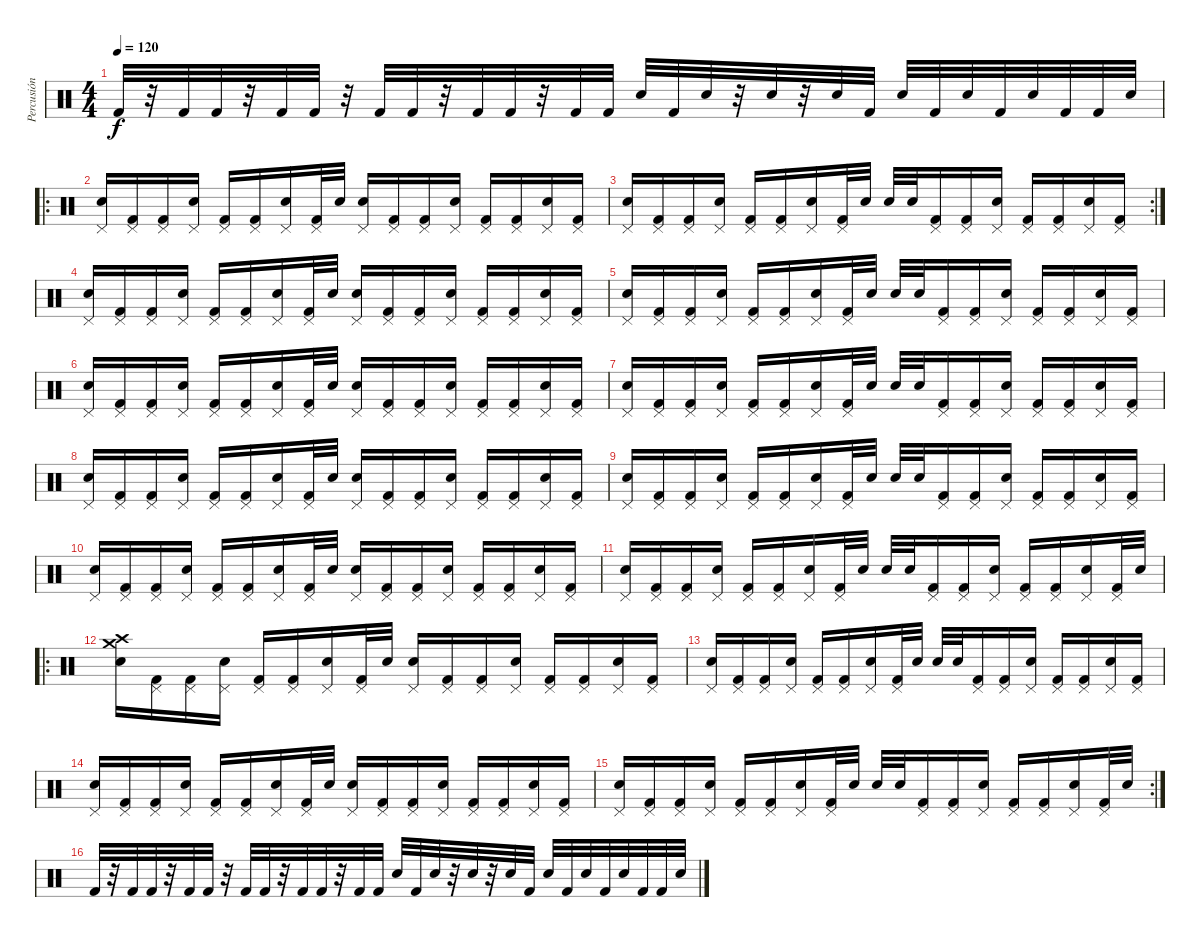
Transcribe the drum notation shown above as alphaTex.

\track ("Percusión" "Percusión") {instrument percussion}
\staff {score}
\articulation defaults
\ts (4 4)
\tempo 120
\clef neutral
\ks c "Kick (hit) 2".32{dy f volume 16}
r.32 "Kick (hit) 2".32{volume 10} "Kick (hit) 2".32 r.32 "Kick (hit) 2".32{volume 7} "Kick (hit) 2".32 r.32 "Kick (hit) 2".32{volume 4} "Kick (hit) 2".32 r.32 "Kick (hit) 2".32 "Kick (hit) 2".32 r.32 "Kick (hit) 2".32{volume 2} "Kick (hit) 2".32 "Electric Snare (hit)".32 "Kick (hit) 2".32 "Electric Snare (hit)".32 r.32 "Electric Snare (hit)".32 r.32 "Electric Snare (hit)".32{volume 4} "Kick (hit) 2".32 "Electric Snare (hit)".32 "Kick (hit) 2".32 "Electric Snare (hit)".32 "Kick (hit) 2".32 "Electric Snare (hit)".32{volume 8} "Kick (hit) 2".32 "Kick (hit) 2".32 "Electric Snare (hit)".32{volume 16} |
\ro
("Pedal Hi-Hat (hit)" "Electric Snare (hit)").16 ("Pedal Hi-Hat (hit)" "Kick (hit) 2").16 ("Pedal Hi-Hat (hit)" "Kick (hit) 2").16 ("Pedal Hi-Hat (hit)" "Electric Snare (hit)").16 ("Pedal Hi-Hat (hit)" "Kick (hit) 2").16 ("Pedal Hi-Hat (hit)" "Kick (hit) 2").16 ("Pedal Hi-Hat (hit)" "Electric Snare (hit)").16 ("Pedal Hi-Hat (hit)" "Kick (hit) 2").32 "Electric Snare (hit)".32 ("Pedal Hi-Hat (hit)" "Electric Snare (hit)").16 ("Pedal Hi-Hat (hit)" "Kick (hit) 2").16 ("Pedal Hi-Hat (hit)" "Kick (hit) 2").16 ("Pedal Hi-Hat (hit)" "Electric Snare (hit)").16 ("Pedal Hi-Hat (hit)" "Kick (hit) 2").16 ("Pedal Hi-Hat (hit)" "Kick (hit) 2").16 ("Pedal Hi-Hat (hit)" "Electric Snare (hit)").16 ("Pedal Hi-Hat (hit)" "Kick (hit) 2").16 |
\rc 2
("Pedal Hi-Hat (hit)" "Electric Snare (hit)").16 ("Pedal Hi-Hat (hit)" "Kick (hit) 2").16 ("Pedal Hi-Hat (hit)" "Kick (hit) 2").16 ("Pedal Hi-Hat (hit)" "Electric Snare (hit)").16 ("Pedal Hi-Hat (hit)" "Kick (hit) 2").16 ("Pedal Hi-Hat (hit)" "Kick (hit) 2").16 ("Pedal Hi-Hat (hit)" "Electric Snare (hit)").16 ("Pedal Hi-Hat (hit)" "Kick (hit) 2").32 "Electric Snare (hit)".32 "Electric Snare (hit)".32 "Electric Snare (hit)".32 ("Pedal Hi-Hat (hit)" "Kick (hit) 2").16 ("Pedal Hi-Hat (hit)" "Kick (hit) 2").16 ("Pedal Hi-Hat (hit)" "Electric Snare (hit)").16 ("Pedal Hi-Hat (hit)" "Kick (hit) 2").16 ("Pedal Hi-Hat (hit)" "Kick (hit) 2").16 ("Pedal Hi-Hat (hit)" "Electric Snare (hit)").16 ("Pedal Hi-Hat (hit)" "Kick (hit) 2").16 |
("Pedal Hi-Hat (hit)" "Electric Snare (hit)").16 ("Pedal Hi-Hat (hit)" "Kick (hit) 2").16 ("Pedal Hi-Hat (hit)" "Kick (hit) 2").16 ("Pedal Hi-Hat (hit)" "Electric Snare (hit)").16 ("Pedal Hi-Hat (hit)" "Kick (hit) 2").16 ("Pedal Hi-Hat (hit)" "Kick (hit) 2").16 ("Pedal Hi-Hat (hit)" "Electric Snare (hit)").16 ("Pedal Hi-Hat (hit)" "Kick (hit) 2").32 "Electric Snare (hit)".32 ("Pedal Hi-Hat (hit)" "Electric Snare (hit)").16 ("Pedal Hi-Hat (hit)" "Kick (hit) 2").16 ("Pedal Hi-Hat (hit)" "Kick (hit) 2").16 ("Pedal Hi-Hat (hit)" "Electric Snare (hit)").16 ("Pedal Hi-Hat (hit)" "Kick (hit) 2").16 ("Pedal Hi-Hat (hit)" "Kick (hit) 2").16 ("Pedal Hi-Hat (hit)" "Electric Snare (hit)").16 ("Pedal Hi-Hat (hit)" "Kick (hit) 2").16 |
("Pedal Hi-Hat (hit)" "Electric Snare (hit)").16 ("Pedal Hi-Hat (hit)" "Kick (hit) 2").16 ("Pedal Hi-Hat (hit)" "Kick (hit) 2").16 ("Pedal Hi-Hat (hit)" "Electric Snare (hit)").16 ("Pedal Hi-Hat (hit)" "Kick (hit) 2").16 ("Pedal Hi-Hat (hit)" "Kick (hit) 2").16 ("Pedal Hi-Hat (hit)" "Electric Snare (hit)").16 ("Pedal Hi-Hat (hit)" "Kick (hit) 2").32 "Electric Snare (hit)".32 "Electric Snare (hit)".32 "Electric Snare (hit)".32 ("Pedal Hi-Hat (hit)" "Kick (hit) 2").16 ("Pedal Hi-Hat (hit)" "Kick (hit) 2").16 ("Pedal Hi-Hat (hit)" "Electric Snare (hit)").16 ("Pedal Hi-Hat (hit)" "Kick (hit) 2").16 ("Pedal Hi-Hat (hit)" "Kick (hit) 2").16 ("Pedal Hi-Hat (hit)" "Electric Snare (hit)").16 ("Pedal Hi-Hat (hit)" "Kick (hit) 2").16 |
("Pedal Hi-Hat (hit)" "Electric Snare (hit)").16 ("Pedal Hi-Hat (hit)" "Kick (hit) 2").16 ("Pedal Hi-Hat (hit)" "Kick (hit) 2").16 ("Pedal Hi-Hat (hit)" "Electric Snare (hit)").16 ("Pedal Hi-Hat (hit)" "Kick (hit) 2").16 ("Pedal Hi-Hat (hit)" "Kick (hit) 2").16 ("Pedal Hi-Hat (hit)" "Electric Snare (hit)").16 ("Pedal Hi-Hat (hit)" "Kick (hit) 2").32 "Electric Snare (hit)".32 ("Pedal Hi-Hat (hit)" "Electric Snare (hit)").16 ("Pedal Hi-Hat (hit)" "Kick (hit) 2").16 ("Pedal Hi-Hat (hit)" "Kick (hit) 2").16 ("Pedal Hi-Hat (hit)" "Electric Snare (hit)").16 ("Pedal Hi-Hat (hit)" "Kick (hit) 2").16 ("Pedal Hi-Hat (hit)" "Kick (hit) 2").16 ("Pedal Hi-Hat (hit)" "Electric Snare (hit)").16 ("Pedal Hi-Hat (hit)" "Kick (hit) 2").16 |
("Pedal Hi-Hat (hit)" "Electric Snare (hit)").16 ("Pedal Hi-Hat (hit)" "Kick (hit) 2").16 ("Pedal Hi-Hat (hit)" "Kick (hit) 2").16 ("Pedal Hi-Hat (hit)" "Electric Snare (hit)").16 ("Pedal Hi-Hat (hit)" "Kick (hit) 2").16 ("Pedal Hi-Hat (hit)" "Kick (hit) 2").16 ("Pedal Hi-Hat (hit)" "Electric Snare (hit)").16 ("Pedal Hi-Hat (hit)" "Kick (hit) 2").32 "Electric Snare (hit)".32 "Electric Snare (hit)".32 "Electric Snare (hit)".32 ("Pedal Hi-Hat (hit)" "Kick (hit) 2").16 ("Pedal Hi-Hat (hit)" "Kick (hit) 2").16 ("Pedal Hi-Hat (hit)" "Electric Snare (hit)").16 ("Pedal Hi-Hat (hit)" "Kick (hit) 2").16 ("Pedal Hi-Hat (hit)" "Kick (hit) 2").16 ("Pedal Hi-Hat (hit)" "Electric Snare (hit)").16 ("Pedal Hi-Hat (hit)" "Kick (hit) 2").16 |
("Pedal Hi-Hat (hit)" "Electric Snare (hit)").16 ("Pedal Hi-Hat (hit)" "Kick (hit) 2").16 ("Pedal Hi-Hat (hit)" "Kick (hit) 2").16 ("Pedal Hi-Hat (hit)" "Electric Snare (hit)").16 ("Pedal Hi-Hat (hit)" "Kick (hit) 2").16 ("Pedal Hi-Hat (hit)" "Kick (hit) 2").16 ("Pedal Hi-Hat (hit)" "Electric Snare (hit)").16 ("Pedal Hi-Hat (hit)" "Kick (hit) 2").32 "Electric Snare (hit)".32 ("Pedal Hi-Hat (hit)" "Electric Snare (hit)").16 ("Pedal Hi-Hat (hit)" "Kick (hit) 2").16 ("Pedal Hi-Hat (hit)" "Kick (hit) 2").16 ("Pedal Hi-Hat (hit)" "Electric Snare (hit)").16 ("Pedal Hi-Hat (hit)" "Kick (hit) 2").16 ("Pedal Hi-Hat (hit)" "Kick (hit) 2").16 ("Pedal Hi-Hat (hit)" "Electric Snare (hit)").16 ("Pedal Hi-Hat (hit)" "Kick (hit) 2").16 |
("Pedal Hi-Hat (hit)" "Electric Snare (hit)").16 ("Pedal Hi-Hat (hit)" "Kick (hit) 2").16 ("Pedal Hi-Hat (hit)" "Kick (hit) 2").16 ("Pedal Hi-Hat (hit)" "Electric Snare (hit)").16 ("Pedal Hi-Hat (hit)" "Kick (hit) 2").16 ("Pedal Hi-Hat (hit)" "Kick (hit) 2").16 ("Pedal Hi-Hat (hit)" "Electric Snare (hit)").16 ("Pedal Hi-Hat (hit)" "Kick (hit) 2").32 "Electric Snare (hit)".32 "Electric Snare (hit)".32 "Electric Snare (hit)".32 ("Pedal Hi-Hat (hit)" "Kick (hit) 2").16 ("Pedal Hi-Hat (hit)" "Kick (hit) 2").16 ("Pedal Hi-Hat (hit)" "Electric Snare (hit)").16 ("Pedal Hi-Hat (hit)" "Kick (hit) 2").16 ("Pedal Hi-Hat (hit)" "Kick (hit) 2").16 ("Pedal Hi-Hat (hit)" "Electric Snare (hit)").16 ("Pedal Hi-Hat (hit)" "Kick (hit) 2").16 |
("Pedal Hi-Hat (hit)" "Electric Snare (hit)").16 ("Pedal Hi-Hat (hit)" "Kick (hit) 2").16 ("Pedal Hi-Hat (hit)" "Kick (hit) 2").16 ("Pedal Hi-Hat (hit)" "Electric Snare (hit)").16 ("Pedal Hi-Hat (hit)" "Kick (hit) 2").16 ("Pedal Hi-Hat (hit)" "Kick (hit) 2").16 ("Pedal Hi-Hat (hit)" "Electric Snare (hit)").16 ("Pedal Hi-Hat (hit)" "Kick (hit) 2").32 "Electric Snare (hit)".32 ("Pedal Hi-Hat (hit)" "Electric Snare (hit)").16 ("Pedal Hi-Hat (hit)" "Kick (hit) 2").16 ("Pedal Hi-Hat (hit)" "Kick (hit) 2").16 ("Pedal Hi-Hat (hit)" "Electric Snare (hit)").16 ("Pedal Hi-Hat (hit)" "Kick (hit) 2").16 ("Pedal Hi-Hat (hit)" "Kick (hit) 2").16 ("Pedal Hi-Hat (hit)" "Electric Snare (hit)").16 ("Pedal Hi-Hat (hit)" "Kick (hit) 2").16 |
("Pedal Hi-Hat (hit)" "Electric Snare (hit)").16 ("Pedal Hi-Hat (hit)" "Kick (hit) 2").16 ("Pedal Hi-Hat (hit)" "Kick (hit) 2").16 ("Pedal Hi-Hat (hit)" "Electric Snare (hit)").16 ("Pedal Hi-Hat (hit)" "Kick (hit) 2").16 ("Pedal Hi-Hat (hit)" "Kick (hit) 2").16 ("Pedal Hi-Hat (hit)" "Electric Snare (hit)").16 ("Pedal Hi-Hat (hit)" "Kick (hit) 2").32 "Electric Snare (hit)".32 "Electric Snare (hit)".32 "Electric Snare (hit)".32 ("Pedal Hi-Hat (hit)" "Kick (hit) 2").16 ("Pedal Hi-Hat (hit)" "Kick (hit) 2").16 ("Pedal Hi-Hat (hit)" "Electric Snare (hit)").16 ("Pedal Hi-Hat (hit)" "Kick (hit) 2").16 ("Pedal Hi-Hat (hit)" "Kick (hit) 2").16 ("Pedal Hi-Hat (hit)" "Electric Snare (hit)").16 ("Pedal Hi-Hat (hit)" "Kick (hit) 2").32 "Electric Snare (hit)".32 |
\ro
("Crash high (hit)" "Crash medium (hit)" "Electric Snare (hit)").16 ("Pedal Hi-Hat (hit)" "Kick (hit) 2").16 ("Pedal Hi-Hat (hit)" "Kick (hit) 2").16 ("Pedal Hi-Hat (hit)" "Electric Snare (hit)").16 ("Pedal Hi-Hat (hit)" "Kick (hit) 2").16 ("Pedal Hi-Hat (hit)" "Kick (hit) 2").16 ("Pedal Hi-Hat (hit)" "Electric Snare (hit)").16 ("Pedal Hi-Hat (hit)" "Kick (hit) 2").32 "Electric Snare (hit)".32 ("Pedal Hi-Hat (hit)" "Electric Snare (hit)").16 ("Pedal Hi-Hat (hit)" "Kick (hit) 2").16 ("Pedal Hi-Hat (hit)" "Kick (hit) 2").16 ("Pedal Hi-Hat (hit)" "Electric Snare (hit)").16 ("Pedal Hi-Hat (hit)" "Kick (hit) 2").16 ("Pedal Hi-Hat (hit)" "Kick (hit) 2").16 ("Pedal Hi-Hat (hit)" "Electric Snare (hit)").16 ("Pedal Hi-Hat (hit)" "Kick (hit) 2").16 |
("Pedal Hi-Hat (hit)" "Electric Snare (hit)").16 ("Pedal Hi-Hat (hit)" "Kick (hit) 2").16 ("Pedal Hi-Hat (hit)" "Kick (hit) 2").16 ("Pedal Hi-Hat (hit)" "Electric Snare (hit)").16 ("Pedal Hi-Hat (hit)" "Kick (hit) 2").16 ("Pedal Hi-Hat (hit)" "Kick (hit) 2").16 ("Pedal Hi-Hat (hit)" "Electric Snare (hit)").16 ("Pedal Hi-Hat (hit)" "Kick (hit) 2").32 "Electric Snare (hit)".32 "Electric Snare (hit)".32 "Electric Snare (hit)".32 ("Pedal Hi-Hat (hit)" "Kick (hit) 2").16 ("Pedal Hi-Hat (hit)" "Kick (hit) 2").16 ("Pedal Hi-Hat (hit)" "Electric Snare (hit)").16 ("Pedal Hi-Hat (hit)" "Kick (hit) 2").16 ("Pedal Hi-Hat (hit)" "Kick (hit) 2").16 ("Pedal Hi-Hat (hit)" "Electric Snare (hit)").16 ("Pedal Hi-Hat (hit)" "Kick (hit) 2").16 |
("Pedal Hi-Hat (hit)" "Electric Snare (hit)").16 ("Pedal Hi-Hat (hit)" "Kick (hit) 2").16 ("Pedal Hi-Hat (hit)" "Kick (hit) 2").16 ("Pedal Hi-Hat (hit)" "Electric Snare (hit)").16 ("Pedal Hi-Hat (hit)" "Kick (hit) 2").16 ("Pedal Hi-Hat (hit)" "Kick (hit) 2").16 ("Pedal Hi-Hat (hit)" "Electric Snare (hit)").16 ("Pedal Hi-Hat (hit)" "Kick (hit) 2").32 "Electric Snare (hit)".32 ("Pedal Hi-Hat (hit)" "Electric Snare (hit)").16 ("Pedal Hi-Hat (hit)" "Kick (hit) 2").16 ("Pedal Hi-Hat (hit)" "Kick (hit) 2").16 ("Pedal Hi-Hat (hit)" "Electric Snare (hit)").16 ("Pedal Hi-Hat (hit)" "Kick (hit) 2").16 ("Pedal Hi-Hat (hit)" "Kick (hit) 2").16 ("Pedal Hi-Hat (hit)" "Electric Snare (hit)").16 ("Pedal Hi-Hat (hit)" "Kick (hit) 2").16 |
\rc 2
("Pedal Hi-Hat (hit)" "Electric Snare (hit)").16 ("Pedal Hi-Hat (hit)" "Kick (hit) 2").16 ("Pedal Hi-Hat (hit)" "Kick (hit) 2").16 ("Pedal Hi-Hat (hit)" "Electric Snare (hit)").16 ("Pedal Hi-Hat (hit)" "Kick (hit) 2").16 ("Pedal Hi-Hat (hit)" "Kick (hit) 2").16 ("Pedal Hi-Hat (hit)" "Electric Snare (hit)").16 ("Pedal Hi-Hat (hit)" "Kick (hit) 2").32 "Electric Snare (hit)".32 "Electric Snare (hit)".32 "Electric Snare (hit)".32 ("Pedal Hi-Hat (hit)" "Kick (hit) 2").16 ("Pedal Hi-Hat (hit)" "Kick (hit) 2").16 ("Pedal Hi-Hat (hit)" "Electric Snare (hit)").16 ("Pedal Hi-Hat (hit)" "Kick (hit) 2").16 ("Pedal Hi-Hat (hit)" "Kick (hit) 2").16 ("Pedal Hi-Hat (hit)" "Electric Snare (hit)").16 ("Pedal Hi-Hat (hit)" "Kick (hit) 2").32 "Electric Snare (hit)".32 |
"Kick (hit) 2".32{volume 16} r.32 "Kick (hit) 2".32{volume 10} "Kick (hit) 2".32 r.32 "Kick (hit) 2".32{volume 7} "Kick (hit) 2".32 r.32 "Kick (hit) 2".32{volume 4} "Kick (hit) 2".32 r.32 "Kick (hit) 2".32 "Kick (hit) 2".32 r.32 "Kick (hit) 2".32{volume 2} "Kick (hit) 2".32 "Electric Snare (hit)".32 "Kick (hit) 2".32 "Electric Snare (hit)".32 r.32 "Electric Snare (hit)".32 r.32 "Electric Snare (hit)".32{volume 4} "Kick (hit) 2".32 "Electric Snare (hit)".32 "Kick (hit) 2".32 "Electric Snare (hit)".32 "Kick (hit) 2".32 "Electric Snare (hit)".32{volume 8} "Kick (hit) 2".32 "Kick (hit) 2".32 "Electric Snare (hit)".32{volume 16}
